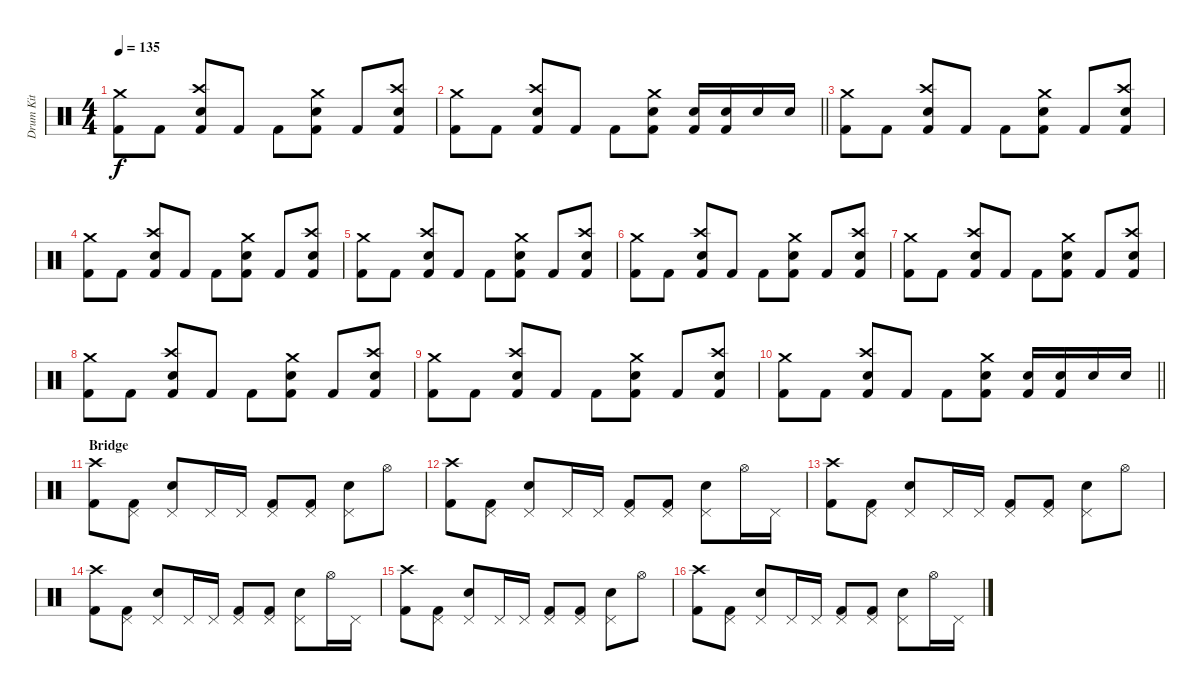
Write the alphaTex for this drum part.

\track ("Drum Kit" "Drum Kit") {instrument percussion}
\staff {score}
\articulation defaults
\ts (4 4)
\tempo 135
\clef neutral
\ks c
("Crash medium (hit)" "Kick (hit) 2").8{dy f} "Kick (hit) 2".8 ("Crash high (hit)" "Electric Snare (hit)" "Kick (hit) 2").8 "Kick (hit) 2".8 "Kick (hit) 2".8 ("Crash medium (hit)" "Electric Snare (hit)" "Kick (hit) 2").8 "Kick (hit) 2".8 ("Crash high (hit)" "Electric Snare (hit)" "Kick (hit) 2").8 |
\barLineRight lightlight
("Crash medium (hit)" "Kick (hit) 2").8 "Kick (hit) 2".8 ("Crash high (hit)" "Electric Snare (hit)" "Kick (hit) 2").8 "Kick (hit) 2".8 "Kick (hit) 2".8 ("Crash medium (hit)" "Electric Snare (hit)" "Kick (hit) 2").8 ("Electric Snare (hit)" "Kick (hit) 2").16 ("Electric Snare (hit)" "Kick (hit) 2").16 "Electric Snare (hit)".16 "Electric Snare (hit)".16 |
("Crash medium (hit)" "Kick (hit) 2").8 "Kick (hit) 2".8 ("Crash high (hit)" "Electric Snare (hit)" "Kick (hit) 2").8 "Kick (hit) 2".8 "Kick (hit) 2".8 ("Crash medium (hit)" "Electric Snare (hit)" "Kick (hit) 2").8 "Kick (hit) 2".8 ("Crash high (hit)" "Electric Snare (hit)" "Kick (hit) 2").8 |
("Crash medium (hit)" "Kick (hit) 2").8 "Kick (hit) 2".8 ("Crash high (hit)" "Electric Snare (hit)" "Kick (hit) 2").8 "Kick (hit) 2".8 "Kick (hit) 2".8 ("Crash medium (hit)" "Electric Snare (hit)" "Kick (hit) 2").8 "Kick (hit) 2".8 ("Crash high (hit)" "Electric Snare (hit)" "Kick (hit) 2").8 |
("Crash medium (hit)" "Kick (hit) 2").8 "Kick (hit) 2".8 ("Crash high (hit)" "Electric Snare (hit)" "Kick (hit) 2").8 "Kick (hit) 2".8 "Kick (hit) 2".8 ("Crash medium (hit)" "Electric Snare (hit)" "Kick (hit) 2").8 "Kick (hit) 2".8 ("Crash high (hit)" "Electric Snare (hit)" "Kick (hit) 2").8 |
("Crash medium (hit)" "Kick (hit) 2").8 "Kick (hit) 2".8 ("Crash high (hit)" "Electric Snare (hit)" "Kick (hit) 2").8 "Kick (hit) 2".8 "Kick (hit) 2".8 ("Crash medium (hit)" "Electric Snare (hit)" "Kick (hit) 2").8 "Kick (hit) 2".8 ("Crash high (hit)" "Electric Snare (hit)" "Kick (hit) 2").8 |
("Crash medium (hit)" "Kick (hit) 2").8 "Kick (hit) 2".8 ("Crash high (hit)" "Electric Snare (hit)" "Kick (hit) 2").8 "Kick (hit) 2".8 "Kick (hit) 2".8 ("Crash medium (hit)" "Electric Snare (hit)" "Kick (hit) 2").8 "Kick (hit) 2".8 ("Crash high (hit)" "Electric Snare (hit)" "Kick (hit) 2").8 |
("Crash medium (hit)" "Kick (hit) 2").8 "Kick (hit) 2".8 ("Crash high (hit)" "Electric Snare (hit)" "Kick (hit) 2").8 "Kick (hit) 2".8 "Kick (hit) 2".8 ("Crash medium (hit)" "Electric Snare (hit)" "Kick (hit) 2").8 "Kick (hit) 2".8 ("Crash high (hit)" "Electric Snare (hit)" "Kick (hit) 2").8 |
("Crash medium (hit)" "Kick (hit) 2").8 "Kick (hit) 2".8 ("Crash high (hit)" "Electric Snare (hit)" "Kick (hit) 2").8 "Kick (hit) 2".8 "Kick (hit) 2".8 ("Crash medium (hit)" "Electric Snare (hit)" "Kick (hit) 2").8 "Kick (hit) 2".8 ("Crash high (hit)" "Electric Snare (hit)" "Kick (hit) 2").8 |
\barLineRight lightlight
("Crash medium (hit)" "Kick (hit) 2").8 "Kick (hit) 2".8 ("Crash high (hit)" "Electric Snare (hit)" "Kick (hit) 2").8 "Kick (hit) 2".8 "Kick (hit) 2".8 ("Crash medium (hit)" "Electric Snare (hit)" "Kick (hit) 2").8 ("Electric Snare (hit)" "Kick (hit) 2").16 ("Electric Snare (hit)" "Kick (hit) 2").16 "Electric Snare (hit)".16 "Electric Snare (hit)".16 |
\section ("" "Bridge")
("Crash high (hit)" "Kick (hit) 2").8 ("Pedal Hi-Hat (hit)" "Kick (hit) 2").8 ("Pedal Hi-Hat (hit)" "Electric Snare (hit)").8 "Pedal Hi-Hat (hit)".16 "Pedal Hi-Hat (hit)".16 ("Pedal Hi-Hat (hit)" "Kick (hit) 2").8 ("Pedal Hi-Hat (hit)" "Kick (hit) 2").8 ("Pedal Hi-Hat (hit)" "Electric Snare (hit)").8 "Hi-Hat (open)".8 |
("Crash high (hit)" "Kick (hit) 2").8 ("Pedal Hi-Hat (hit)" "Kick (hit) 2").8 ("Pedal Hi-Hat (hit)" "Electric Snare (hit)").8 "Pedal Hi-Hat (hit)".16 "Pedal Hi-Hat (hit)".16 ("Pedal Hi-Hat (hit)" "Kick (hit) 2").8 ("Pedal Hi-Hat (hit)" "Kick (hit) 2").8 ("Pedal Hi-Hat (hit)" "Electric Snare (hit)").8 "Hi-Hat (open)".16 "Pedal Hi-Hat (hit)".16 |
("Crash high (hit)" "Kick (hit) 2").8 ("Pedal Hi-Hat (hit)" "Kick (hit) 2").8 ("Pedal Hi-Hat (hit)" "Electric Snare (hit)").8 "Pedal Hi-Hat (hit)".16 "Pedal Hi-Hat (hit)".16 ("Pedal Hi-Hat (hit)" "Kick (hit) 2").8 ("Pedal Hi-Hat (hit)" "Kick (hit) 2").8 ("Pedal Hi-Hat (hit)" "Electric Snare (hit)").8 "Hi-Hat (open)".8 |
("Crash high (hit)" "Kick (hit) 2").8 ("Pedal Hi-Hat (hit)" "Kick (hit) 2").8 ("Pedal Hi-Hat (hit)" "Electric Snare (hit)").8 "Pedal Hi-Hat (hit)".16 "Pedal Hi-Hat (hit)".16 ("Pedal Hi-Hat (hit)" "Kick (hit) 2").8 ("Pedal Hi-Hat (hit)" "Kick (hit) 2").8 ("Pedal Hi-Hat (hit)" "Electric Snare (hit)").8 "Hi-Hat (open)".16 "Pedal Hi-Hat (hit)".16 |
("Crash high (hit)" "Kick (hit) 2").8 ("Pedal Hi-Hat (hit)" "Kick (hit) 2").8 ("Pedal Hi-Hat (hit)" "Electric Snare (hit)").8 "Pedal Hi-Hat (hit)".16 "Pedal Hi-Hat (hit)".16 ("Pedal Hi-Hat (hit)" "Kick (hit) 2").8 ("Pedal Hi-Hat (hit)" "Kick (hit) 2").8 ("Pedal Hi-Hat (hit)" "Electric Snare (hit)").8 "Hi-Hat (open)".8 |
("Crash high (hit)" "Kick (hit) 2").8 ("Pedal Hi-Hat (hit)" "Kick (hit) 2").8 ("Pedal Hi-Hat (hit)" "Electric Snare (hit)").8 "Pedal Hi-Hat (hit)".16 "Pedal Hi-Hat (hit)".16 ("Pedal Hi-Hat (hit)" "Kick (hit) 2").8 ("Pedal Hi-Hat (hit)" "Kick (hit) 2").8 ("Pedal Hi-Hat (hit)" "Electric Snare (hit)").8 "Hi-Hat (open)".16 "Pedal Hi-Hat (hit)".16
